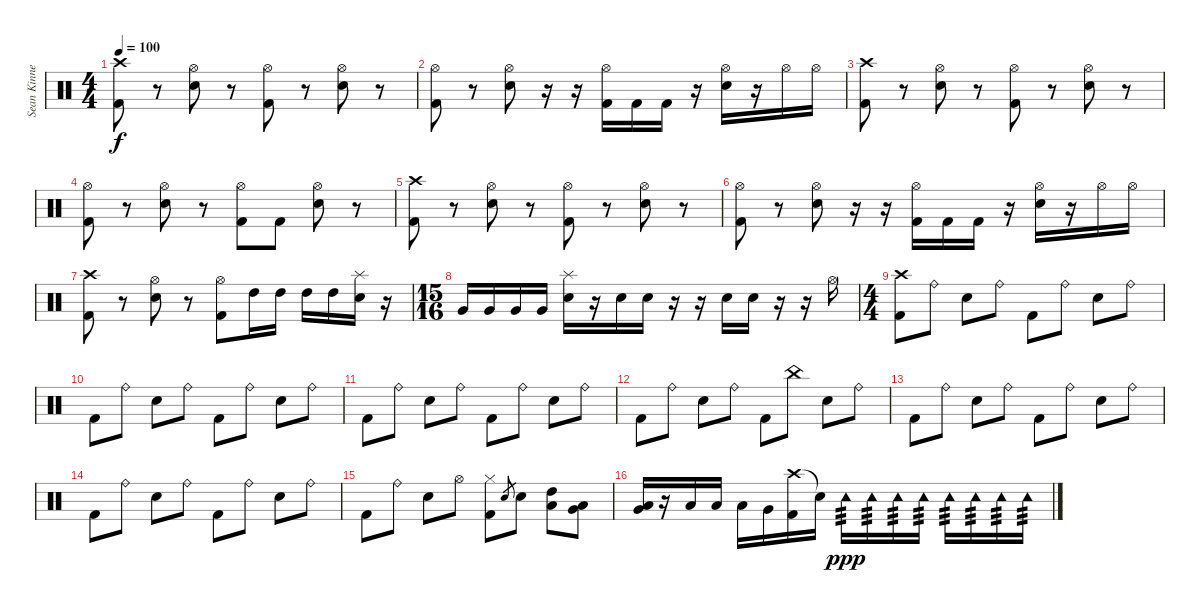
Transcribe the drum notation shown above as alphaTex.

\track ("Sean Kinney" "Sean Kinne") {instrument percussion}
\staff {score}
\articulation defaults
\ts (4 4)
\tempo 100
\clef neutral
\ks c
("Crash high (hit)" "Kick (hit) 2").8{dy f} r.8 ("Hi-Hat (open)" "Snare (hit) 2").8 r.8 ("Hi-Hat (open)" "Kick (hit) 2").8 r.8 ("Hi-Hat (open)" "Snare (hit) 2").8 r.8 |
("Hi-Hat (open)" "Kick (hit) 2").8 r.8 ("Hi-Hat (open)" "Snare (hit) 2").8 r.16 r.16 ("Hi-Hat (open)" "Kick (hit) 2").16 "Kick (hit) 2".16 "Kick (hit) 2".16 r.16 ("Hi-Hat (open)" "Snare (hit) 2").16 r.16 "Hi-Hat (open)".16 "Hi-Hat (open)".16 |
("Crash high (hit)" "Kick (hit) 2").8 r.8 ("Hi-Hat (open)" "Snare (hit) 2").8 r.8 ("Hi-Hat (open)" "Kick (hit) 2").8 r.8 ("Hi-Hat (open)" "Snare (hit) 2").8 r.8 |
("Hi-Hat (open)" "Kick (hit) 2").8 r.8 ("Hi-Hat (open)" "Snare (hit) 2").8 r.8 ("Hi-Hat (open)" "Kick (hit) 2").8 "Kick (hit) 2".8 ("Hi-Hat (open)" "Snare (hit) 2").8 r.8 |
("Crash high (hit)" "Kick (hit) 2").8 r.8 ("Hi-Hat (open)" "Snare (hit) 2").8 r.8 ("Hi-Hat (open)" "Kick (hit) 2").8 r.8 ("Hi-Hat (open)" "Snare (hit) 2").8 r.8 |
("Hi-Hat (open)" "Kick (hit) 2").8 r.8 ("Hi-Hat (open)" "Snare (hit) 2").8 r.16 r.16 ("Hi-Hat (open)" "Kick (hit) 2").16 "Kick (hit) 2".16 "Kick (hit) 2".16 r.16 ("Hi-Hat (open)" "Snare (hit) 2").16 r.16 "Hi-Hat (open)".16 "Hi-Hat (open)".16 |
("Crash high (hit)" "Kick (hit) 2").8 r.8 ("Hi-Hat (open)" "Snare (hit) 2").8 r.8 ("Hi-Hat (open)" "Kick (hit) 2").8 "High Tom (hit)".16 "High Tom (hit)".16 "High Tom (hit)".16 "High Tom (hit)".16 ("Splash (hit)" "Snare (hit) 2").16 r.16 |
\ts (15 16)
"Very Low Tom (hit)".16 "Very Low Tom (hit)".16 "Very Low Tom (hit)".16 "Very Low Tom (hit)".16 ("Splash (hit)" "Snare (hit) 2").16 r.16 "Snare (hit) 2".16 "Snare (hit) 2".16 r.16 r.16 "Snare (hit) 2".16 "Snare (hit) 2".16 r.16 r.16 "Hi-Hat (open)".16 |
\ts (4 4)
("Crash high (hit)" "Kick (hit) 2").8 "Ride (bell)".8 "Snare (hit) 2".8 "Ride (bell)".8 "Kick (hit) 2".8 "Ride (bell)".8 "Snare (hit) 2".8 "Ride (bell)".8 |
"Kick (hit) 2".8 "Ride (bell)".8 "Snare (hit) 2".8 "Ride (bell)".8 "Kick (hit) 2".8 "Ride (bell)".8 "Snare (hit) 2".8 "Ride (bell)".8 |
"Kick (hit) 2".8 "Ride (bell)".8 "Snare (hit) 2".8 "Ride (bell)".8 "Kick (hit) 2".8 "Ride (bell)".8 "Snare (hit) 2".8 "Ride (bell)".8 |
"Kick (hit) 2".8 "Ride (bell)".8 "Snare (hit) 2".8 "Ride (bell)".8 "Kick (hit) 2".8 "China (hit)".8 "Snare (hit) 2".8 "Ride (bell)".8 |
"Kick (hit) 2".8 "Ride (bell)".8 "Snare (hit) 2".8 "Ride (bell)".8 "Kick (hit) 2".8 "Ride (bell)".8 "Snare (hit) 2".8 "Ride (bell)".8 |
"Kick (hit) 2".8 "Ride (bell)".8 "Snare (hit) 2".8 "Ride (bell)".8 "Kick (hit) 2".8 "Ride (bell)".8 "Snare (hit) 2".8 "Ride (bell)".8 |
"Kick (hit) 2".8 "Ride (bell)".8 "Snare (hit) 2".8 "Hi-Hat (open)".8 ("Hi-Hat (closed)" "Kick (hit) 2").8 "Snare (hit) 2".8{gr} "Snare (hit) 2".8 ("High Tom (hit)" "Low Tom (hit)").8 ("Low Tom (hit)" "Very Low Tom (hit)").8 |
("Very Low Tom (hit)" "Low Floor Tom (hit)").16 r.16 "Low Tom (hit)".16 "Low Tom (hit)".16 "Low Tom (hit)".16 "Very Low Tom (hit)".16 ("Crash high (hit)" "Kick (hit) 2").16 "Snare (hit)"{t}.16 "Tambourine (hit)".16{tp 3 dy ppp balance 16} "Tambourine (hit)".16{tp 3} "Tambourine (hit)".16{tp 3} "Tambourine (hit)".16{tp 3} "Tambourine (hit)".16{tp 3} "Tambourine (hit)".16{tp 3} "Tambourine (hit)".16{tp 3} "Tambourine (hit)".16{tp 3}
